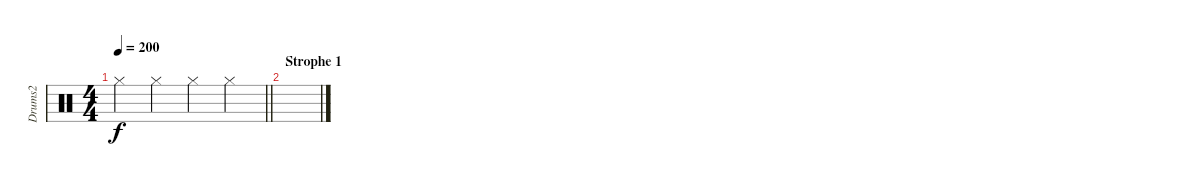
\track ("Drums2" "Drums2") {instrument percussion}
\staff {score}
\articulation defaults
\ts (4 4)
\tempo 200
\clef neutral
\barLineRight lightlight
\ks c "Hi-Hat (closed)".4{dy f} "Hi-Hat (closed)".4 "Hi-Hat (closed)".4 "Hi-Hat (closed)".4
|
\section ("" "Strophe 1")
